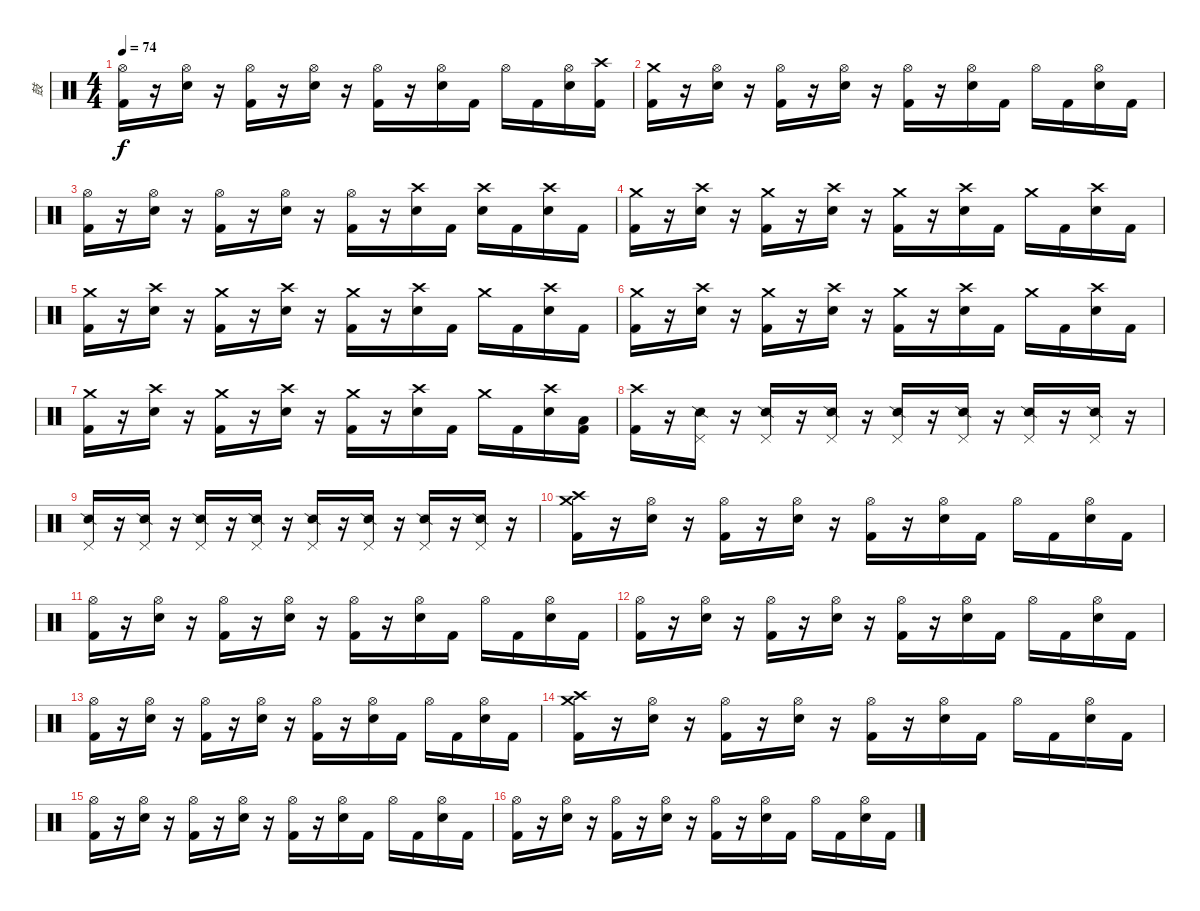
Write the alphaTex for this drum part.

\track ("鼓" "鼓") {instrument percussion}
\staff {score}
\articulation defaults
\ts (4 4)
\tempo 74
\clef neutral
\ks c
("Hi-Hat (open)" "Kick (hit) 2").16{dy f} r.16 ("Hi-Hat (open)" "Electric Snare (hit)").16 r.16 ("Hi-Hat (open)" "Kick (hit) 2").16 r.16 ("Hi-Hat (open)" "Electric Snare (hit)").16 r.16 ("Hi-Hat (open)" "Kick (hit) 2").16 r.16 ("Hi-Hat (open)" "Electric Snare (hit)").16 "Kick (hit) 2".16 "Hi-Hat (open)".16 "Kick (hit) 2".16 ("Hi-Hat (open)" "Electric Snare (hit)").16 ("Crash high (hit)" "Kick (hit) 2").16 |
("Crash medium (hit)" "Kick (hit) 2").16 r.16 ("Hi-Hat (open)" "Electric Snare (hit)").16 r.16 ("Hi-Hat (open)" "Kick (hit) 2").16 r.16 ("Hi-Hat (open)" "Electric Snare (hit)").16 r.16 ("Hi-Hat (open)" "Kick (hit) 2").16 r.16 ("Hi-Hat (open)" "Electric Snare (hit)").16 "Kick (hit) 2".16 "Hi-Hat (open)".16 "Kick (hit) 2".16 ("Hi-Hat (open)" "Electric Snare (hit)").16 "Kick (hit) 2".16 |
("Hi-Hat (open)" "Kick (hit) 2").16 r.16 ("Hi-Hat (open)" "Electric Snare (hit)").16 r.16 ("Hi-Hat (open)" "Kick (hit) 2").16 r.16 ("Hi-Hat (open)" "Electric Snare (hit)").16 r.16 ("Hi-Hat (open)" "Kick (hit) 2").16 r.16 ("Crash high (hit)" "Electric Snare (hit)").16 "Kick (hit) 2".16 ("Crash high (hit)" "Electric Snare (hit)").16 "Kick (hit) 2".16 ("Crash high (hit)" "Electric Snare (hit)").16 "Kick (hit) 2".16 |
("Crash medium (hit)" "Kick (hit) 2").16 r.16 ("Crash high (hit)" "Electric Snare (hit)").16 r.16 ("Crash medium (hit)" "Kick (hit) 2").16 r.16 ("Crash high (hit)" "Electric Snare (hit)").16 r.16 ("Crash medium (hit)" "Kick (hit) 2").16 r.16 ("Crash high (hit)" "Electric Snare (hit)").16 "Kick (hit) 2".16 "Crash medium (hit)".16 "Kick (hit) 2".16 ("Crash high (hit)" "Electric Snare (hit)").16 "Kick (hit) 2".16 |
("Crash medium (hit)" "Kick (hit) 2").16 r.16 ("Crash high (hit)" "Electric Snare (hit)").16 r.16 ("Crash medium (hit)" "Kick (hit) 2").16 r.16 ("Crash high (hit)" "Electric Snare (hit)").16 r.16 ("Crash medium (hit)" "Kick (hit) 2").16 r.16 ("Crash high (hit)" "Electric Snare (hit)").16 "Kick (hit) 2".16 "Crash medium (hit)".16 "Kick (hit) 2".16 ("Crash high (hit)" "Electric Snare (hit)").16 "Kick (hit) 2".16 |
("Crash medium (hit)" "Kick (hit) 2").16 r.16 ("Crash high (hit)" "Electric Snare (hit)").16 r.16 ("Crash medium (hit)" "Kick (hit) 2").16 r.16 ("Crash high (hit)" "Electric Snare (hit)").16 r.16 ("Crash medium (hit)" "Kick (hit) 2").16 r.16 ("Crash high (hit)" "Electric Snare (hit)").16 "Kick (hit) 2".16 "Crash medium (hit)".16 "Kick (hit) 2".16 ("Crash high (hit)" "Electric Snare (hit)").16 "Kick (hit) 2".16 |
("Crash medium (hit)" "Kick (hit) 2").16 r.16 ("Crash high (hit)" "Electric Snare (hit)").16 r.16 ("Crash medium (hit)" "Kick (hit) 2").16 r.16 ("Crash high (hit)" "Electric Snare (hit)").16 r.16 ("Crash medium (hit)" "Kick (hit) 2").16 r.16 ("Crash high (hit)" "Electric Snare (hit)").16 "Kick (hit) 2".16 "Crash medium (hit)".16 "Kick (hit) 2".16 ("Crash high (hit)" "Electric Snare (hit)").16 ("Low Tom (hit)" "Kick (hit) 2").16 |
("Crash high (hit)" "Kick (hit) 2").16 r.16 ("Pedal Hi-Hat (hit)" "Snare (side stick) 2").16 r.16 ("Pedal Hi-Hat (hit)" "Snare (side stick) 2").16 r.16 ("Pedal Hi-Hat (hit)" "Snare (side stick) 2").16 r.16 ("Pedal Hi-Hat (hit)" "Snare (side stick) 2").16 r.16 ("Pedal Hi-Hat (hit)" "Snare (side stick) 2").16 r.16 ("Pedal Hi-Hat (hit)" "Snare (side stick) 2").16 r.16 ("Pedal Hi-Hat (hit)" "Snare (side stick) 2").16 r.16 |
("Pedal Hi-Hat (hit)" "Snare (side stick) 2").16 r.16 ("Pedal Hi-Hat (hit)" "Snare (side stick) 2").16 r.16 ("Pedal Hi-Hat (hit)" "Snare (side stick) 2").16 r.16 ("Pedal Hi-Hat (hit)" "Snare (side stick) 2").16 r.16 ("Pedal Hi-Hat (hit)" "Snare (side stick) 2").16 r.16 ("Pedal Hi-Hat (hit)" "Snare (side stick) 2").16 r.16 ("Pedal Hi-Hat (hit)" "Snare (side stick) 2").16 r.16 ("Pedal Hi-Hat (hit)" "Snare (side stick) 2").16 r.16 |
("Crash high (hit)" "Crash medium (hit)" "Kick (hit) 2").16 r.16 ("Hi-Hat (open)" "Electric Snare (hit)").16 r.16 ("Hi-Hat (open)" "Kick (hit) 2").16 r.16 ("Hi-Hat (open)" "Electric Snare (hit)").16 r.16 ("Hi-Hat (open)" "Kick (hit) 2").16 r.16 ("Hi-Hat (open)" "Electric Snare (hit)").16 "Kick (hit) 2".16 "Hi-Hat (open)".16 "Kick (hit) 2".16 ("Hi-Hat (open)" "Electric Snare (hit)").16 "Kick (hit) 2".16 |
("Hi-Hat (open)" "Kick (hit) 2").16 r.16 ("Hi-Hat (open)" "Electric Snare (hit)").16 r.16 ("Hi-Hat (open)" "Kick (hit) 2").16 r.16 ("Hi-Hat (open)" "Electric Snare (hit)").16 r.16 ("Hi-Hat (open)" "Kick (hit) 2").16 r.16 ("Hi-Hat (open)" "Electric Snare (hit)").16 "Kick (hit) 2".16 "Hi-Hat (open)".16 "Kick (hit) 2".16 ("Hi-Hat (open)" "Electric Snare (hit)").16 "Kick (hit) 2".16 |
("Hi-Hat (open)" "Kick (hit) 2").16 r.16 ("Hi-Hat (open)" "Electric Snare (hit)").16 r.16 ("Hi-Hat (open)" "Kick (hit) 2").16 r.16 ("Hi-Hat (open)" "Electric Snare (hit)").16 r.16 ("Hi-Hat (open)" "Kick (hit) 2").16 r.16 ("Hi-Hat (open)" "Electric Snare (hit)").16 "Kick (hit) 2".16 "Hi-Hat (open)".16 "Kick (hit) 2".16 ("Hi-Hat (open)" "Electric Snare (hit)").16 "Kick (hit) 2".16 |
("Hi-Hat (open)" "Kick (hit) 2").16 r.16 ("Hi-Hat (open)" "Electric Snare (hit)").16 r.16 ("Hi-Hat (open)" "Kick (hit) 2").16 r.16 ("Hi-Hat (open)" "Electric Snare (hit)").16 r.16 ("Hi-Hat (open)" "Kick (hit) 2").16 r.16 ("Hi-Hat (open)" "Electric Snare (hit)").16 "Kick (hit) 2".16 "Hi-Hat (open)".16 "Kick (hit) 2".16 ("Hi-Hat (open)" "Electric Snare (hit)").16 "Kick (hit) 2".16 |
("Crash high (hit)" "Crash medium (hit)" "Kick (hit) 2").16 r.16 ("Hi-Hat (open)" "Electric Snare (hit)").16 r.16 ("Hi-Hat (open)" "Kick (hit) 2").16 r.16 ("Hi-Hat (open)" "Electric Snare (hit)").16 r.16 ("Hi-Hat (open)" "Kick (hit) 2").16 r.16 ("Hi-Hat (open)" "Electric Snare (hit)").16 "Kick (hit) 2".16 "Hi-Hat (open)".16 "Kick (hit) 2".16 ("Hi-Hat (open)" "Electric Snare (hit)").16 "Kick (hit) 2".16 |
("Hi-Hat (open)" "Kick (hit) 2").16 r.16 ("Hi-Hat (open)" "Electric Snare (hit)").16 r.16 ("Hi-Hat (open)" "Kick (hit) 2").16 r.16 ("Hi-Hat (open)" "Electric Snare (hit)").16 r.16 ("Hi-Hat (open)" "Kick (hit) 2").16 r.16 ("Hi-Hat (open)" "Electric Snare (hit)").16 "Kick (hit) 2".16 "Hi-Hat (open)".16 "Kick (hit) 2".16 ("Hi-Hat (open)" "Electric Snare (hit)").16 "Kick (hit) 2".16 |
("Hi-Hat (open)" "Kick (hit) 2").16 r.16 ("Hi-Hat (open)" "Electric Snare (hit)").16 r.16 ("Hi-Hat (open)" "Kick (hit) 2").16 r.16 ("Hi-Hat (open)" "Electric Snare (hit)").16 r.16 ("Hi-Hat (open)" "Kick (hit) 2").16 r.16 ("Hi-Hat (open)" "Electric Snare (hit)").16 "Kick (hit) 2".16 "Hi-Hat (open)".16 "Kick (hit) 2".16 ("Hi-Hat (open)" "Electric Snare (hit)").16 "Kick (hit) 2".16
